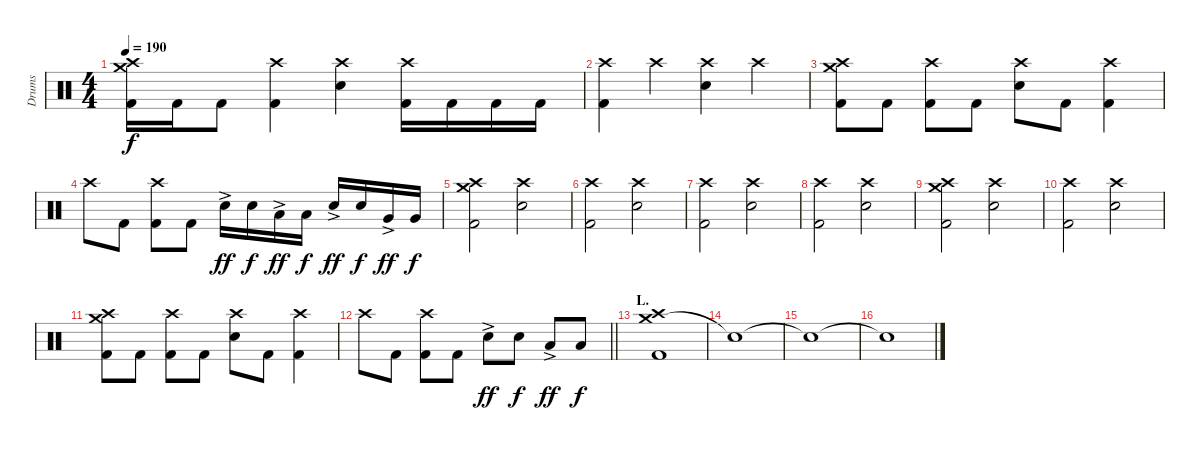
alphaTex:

\track ("Drums" "Drums") {instrument percussion}
\staff {score}
\articulation defaults
\ts (4 4)
\tempo 190
\clef neutral
\ks c
("Crash medium (hit)" "Crash high (hit)" "Kick (hit) 2").16{dy f} "Kick (hit) 2".16 "Kick (hit) 2".8 ("Crash high (hit)" "Kick (hit) 2").4 ("Crash high (hit)" "Electric Snare (hit)").4 ("Crash high (hit)" "Kick (hit) 2").16 "Kick (hit) 2".16 "Kick (hit) 2".16 "Kick (hit) 2".16 |
("Crash high (hit)" "Kick (hit) 2").4 "Crash high (hit)".4 ("Crash high (hit)" "Electric Snare (hit)").4 "Crash high (hit)".4 |
("Crash medium (hit)" "Crash high (hit)" "Kick (hit) 2").8 "Kick (hit) 2".8 ("Crash high (hit)" "Kick (hit) 2").8 "Kick (hit) 2".8 ("Crash high (hit)" "Electric Snare (hit)").8 "Kick (hit) 2".8 ("Crash high (hit)" "Kick (hit) 2").4 |
"Crash high (hit)".8 "Kick (hit) 2".8 ("Crash high (hit)" "Kick (hit) 2").8 "Kick (hit) 2".8 "Electric Snare (hit)"{ac}.16{dy ff} "Electric Snare (hit)".16{dy f} "Low Tom (hit)"{ac}.16{dy ff} "Low Tom (hit)".16{dy f} "Electric Snare (hit)"{ac}.16{dy ff} "Electric Snare (hit)".16{dy f} "Very Low Tom (hit)"{ac}.16{dy ff} "Very Low Tom (hit)".16{dy f} |
("Crash medium (hit)" "Crash high (hit)" "Kick (hit) 2").2 ("Crash high (hit)" "Electric Snare (hit)").2 |
("Crash high (hit)" "Kick (hit) 2").2 ("Crash high (hit)" "Electric Snare (hit)").2 |
("Crash high (hit)" "Kick (hit) 2").2 ("Crash high (hit)" "Electric Snare (hit)").2 |
("Crash high (hit)" "Kick (hit) 2").2 ("Crash high (hit)" "Electric Snare (hit)").2 |
("Crash medium (hit)" "Crash high (hit)" "Kick (hit) 2").2 ("Crash high (hit)" "Electric Snare (hit)").2 |
("Crash high (hit)" "Kick (hit) 2").2 ("Crash high (hit)" "Electric Snare (hit)").2 |
("Crash medium (hit)" "Crash high (hit)" "Kick (hit) 2").8 "Kick (hit) 2".8 ("Crash high (hit)" "Kick (hit) 2").8 "Kick (hit) 2".8 ("Crash high (hit)" "Electric Snare (hit)").8 "Kick (hit) 2".8 ("Crash high (hit)" "Kick (hit) 2").4 |
\barLineRight lightlight "Crash high (hit)".8 "Kick (hit) 2".8
("Crash high (hit)" "Kick (hit) 2").8 "Kick (hit) 2".8 "Electric Snare (hit)"{ac}.8{dy ff} "Electric Snare (hit)".8{dy f} "Low Tom (hit)"{ac}.8{dy ff} "Low Tom (hit)".8{dy f} |
\section ("" "L.")
("Crash medium (hit)" "Crash high (hit)" "Kick (hit) 2").1 |
"Snare (hit)"{t}.1 |
"Snare (hit)"{t}.1 |
"Snare (hit)"{t}.1
